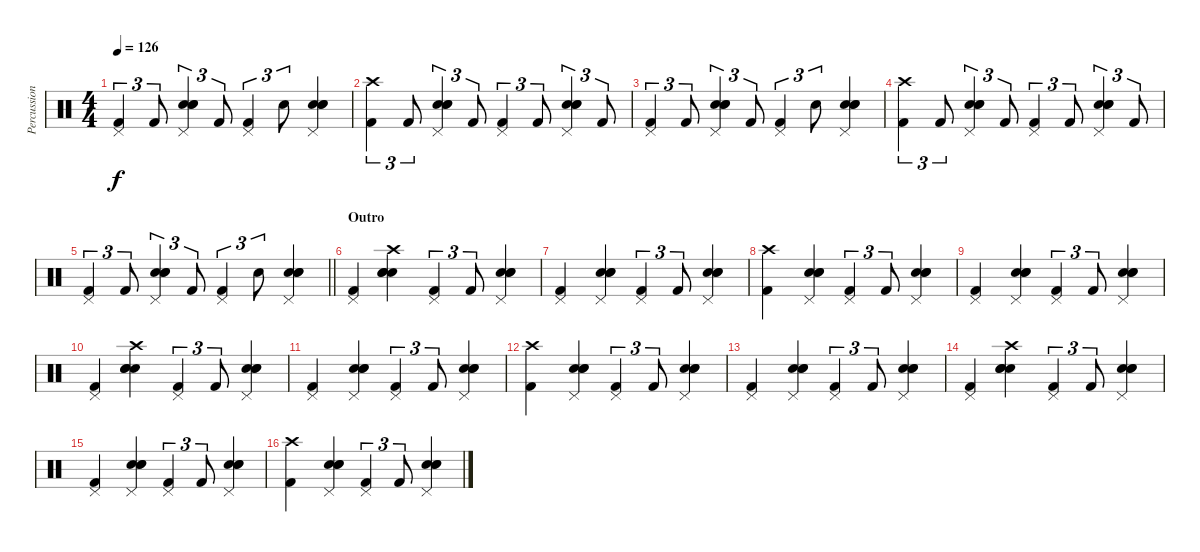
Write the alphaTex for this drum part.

\track ("Percussion" "Percussion") {instrument percussion}
\staff {score}
\articulation defaults
\ts (4 4)
\tempo 126
\clef neutral
\ks c
("Pedal Hi-Hat (hit)" "Kick (hit) 2").4{tu (3 2) dy f} "Kick (hit) 2".8{tu (3 2)} ("Pedal Hi-Hat (hit)" "Electric Snare (hit)" "Hand Clap (hit)" "Hand Clap (hit)").4{tu (3 2)} "Kick (hit) 2".8{tu (3 2)} ("Pedal Hi-Hat (hit)" "Kick (hit) 2").4{tu (3 2)} "Electric Snare (hit)".8{tu (3 2)} ("Pedal Hi-Hat (hit)" "Electric Snare (hit)" "Hand Clap (hit)" "Hand Clap (hit)").4 |
("Crash high (hit)" "Kick (hit) 2").4{tu (3 2)} "Kick (hit) 2".8{tu (3 2)} ("Pedal Hi-Hat (hit)" "Electric Snare (hit)" "Hand Clap (hit)" "Hand Clap (hit)").4{tu (3 2)} "Kick (hit) 2".8{tu (3 2)} ("Pedal Hi-Hat (hit)" "Kick (hit) 2").4{tu (3 2)} "Kick (hit) 2".8{tu (3 2)} ("Pedal Hi-Hat (hit)" "Electric Snare (hit)" "Hand Clap (hit)" "Hand Clap (hit)").4{tu (3 2)} "Kick (hit) 2".8{tu (3 2)} |
("Pedal Hi-Hat (hit)" "Kick (hit) 2").4{tu (3 2)} "Kick (hit) 2".8{tu (3 2)} ("Pedal Hi-Hat (hit)" "Electric Snare (hit)" "Hand Clap (hit)" "Hand Clap (hit)").4{tu (3 2)} "Kick (hit) 2".8{tu (3 2)} ("Pedal Hi-Hat (hit)" "Kick (hit) 2").4{tu (3 2)} "Electric Snare (hit)".8{tu (3 2)} ("Pedal Hi-Hat (hit)" "Electric Snare (hit)" "Hand Clap (hit)" "Hand Clap (hit)").4 |
("Crash high (hit)" "Kick (hit) 2").4{tu (3 2)} "Kick (hit) 2".8{tu (3 2)} ("Pedal Hi-Hat (hit)" "Electric Snare (hit)" "Hand Clap (hit)" "Hand Clap (hit)").4{tu (3 2)} "Kick (hit) 2".8{tu (3 2)} ("Pedal Hi-Hat (hit)" "Kick (hit) 2").4{tu (3 2)} "Kick (hit) 2".8{tu (3 2)} ("Pedal Hi-Hat (hit)" "Electric Snare (hit)" "Hand Clap (hit)" "Hand Clap (hit)").4{tu (3 2)} "Kick (hit) 2".8{tu (3 2)} |
\barLineRight lightlight
("Pedal Hi-Hat (hit)" "Kick (hit) 2").4{tu (3 2)} "Kick (hit) 2".8{tu (3 2)} ("Pedal Hi-Hat (hit)" "Electric Snare (hit)" "Hand Clap (hit)" "Hand Clap (hit)").4{tu (3 2)} "Kick (hit) 2".8{tu (3 2)} ("Pedal Hi-Hat (hit)" "Kick (hit) 2").4{tu (3 2)} "Electric Snare (hit)".8{tu (3 2)} ("Pedal Hi-Hat (hit)" "Electric Snare (hit)" "Hand Clap (hit)" "Hand Clap (hit)").4 |
\section ("" "Outro")
("Pedal Hi-Hat (hit)" "Kick (hit) 2").4 ("Crash high (hit)" "Electric Snare (hit)" "Hand Clap (hit)" "Hand Clap (hit)").4 ("Pedal Hi-Hat (hit)" "Kick (hit) 2").4{tu (3 2)} "Kick (hit) 2".8{tu (3 2)} ("Pedal Hi-Hat (hit)" "Electric Snare (hit)" "Hand Clap (hit)" "Hand Clap (hit)").4 |
("Pedal Hi-Hat (hit)" "Kick (hit) 2").4 ("Pedal Hi-Hat (hit)" "Electric Snare (hit)" "Hand Clap (hit)" "Hand Clap (hit)").4 ("Pedal Hi-Hat (hit)" "Kick (hit) 2").4{tu (3 2)} "Kick (hit) 2".8{tu (3 2)} ("Pedal Hi-Hat (hit)" "Electric Snare (hit)" "Hand Clap (hit)" "Hand Clap (hit)").4 |
("Crash high (hit)" "Kick (hit) 2").4 ("Pedal Hi-Hat (hit)" "Electric Snare (hit)" "Hand Clap (hit)" "Hand Clap (hit)").4 ("Pedal Hi-Hat (hit)" "Kick (hit) 2").4{tu (3 2)} "Kick (hit) 2".8{tu (3 2)} ("Pedal Hi-Hat (hit)" "Electric Snare (hit)" "Hand Clap (hit)" "Hand Clap (hit)").4 |
("Pedal Hi-Hat (hit)" "Kick (hit) 2").4 ("Pedal Hi-Hat (hit)" "Electric Snare (hit)" "Hand Clap (hit)" "Hand Clap (hit)").4 ("Pedal Hi-Hat (hit)" "Kick (hit) 2").4{tu (3 2)} "Kick (hit) 2".8{tu (3 2)} ("Pedal Hi-Hat (hit)" "Electric Snare (hit)" "Hand Clap (hit)" "Hand Clap (hit)").4 |
("Pedal Hi-Hat (hit)" "Kick (hit) 2").4 ("Crash high (hit)" "Electric Snare (hit)" "Hand Clap (hit)" "Hand Clap (hit)").4 ("Pedal Hi-Hat (hit)" "Kick (hit) 2").4{tu (3 2)} "Kick (hit) 2".8{tu (3 2)} ("Pedal Hi-Hat (hit)" "Electric Snare (hit)" "Hand Clap (hit)" "Hand Clap (hit)").4 |
("Pedal Hi-Hat (hit)" "Kick (hit) 2").4 ("Pedal Hi-Hat (hit)" "Electric Snare (hit)" "Hand Clap (hit)" "Hand Clap (hit)").4 ("Pedal Hi-Hat (hit)" "Kick (hit) 2").4{tu (3 2)} "Kick (hit) 2".8{tu (3 2)} ("Pedal Hi-Hat (hit)" "Electric Snare (hit)" "Hand Clap (hit)" "Hand Clap (hit)").4 |
("Crash high (hit)" "Kick (hit) 2").4 ("Pedal Hi-Hat (hit)" "Electric Snare (hit)" "Hand Clap (hit)" "Hand Clap (hit)").4 ("Pedal Hi-Hat (hit)" "Kick (hit) 2").4{tu (3 2)} "Kick (hit) 2".8{tu (3 2)} ("Pedal Hi-Hat (hit)" "Electric Snare (hit)" "Hand Clap (hit)" "Hand Clap (hit)").4 |
("Pedal Hi-Hat (hit)" "Kick (hit) 2").4 ("Pedal Hi-Hat (hit)" "Electric Snare (hit)" "Hand Clap (hit)" "Hand Clap (hit)").4 ("Pedal Hi-Hat (hit)" "Kick (hit) 2").4{tu (3 2)} "Kick (hit) 2".8{tu (3 2)} ("Pedal Hi-Hat (hit)" "Electric Snare (hit)" "Hand Clap (hit)" "Hand Clap (hit)").4 |
("Pedal Hi-Hat (hit)" "Kick (hit) 2").4 ("Crash high (hit)" "Electric Snare (hit)" "Hand Clap (hit)" "Hand Clap (hit)").4 ("Pedal Hi-Hat (hit)" "Kick (hit) 2").4{tu (3 2)} "Kick (hit) 2".8{tu (3 2)} ("Pedal Hi-Hat (hit)" "Electric Snare (hit)" "Hand Clap (hit)" "Hand Clap (hit)").4 |
("Pedal Hi-Hat (hit)" "Kick (hit) 2").4 ("Pedal Hi-Hat (hit)" "Electric Snare (hit)" "Hand Clap (hit)" "Hand Clap (hit)").4 ("Pedal Hi-Hat (hit)" "Kick (hit) 2").4{tu (3 2)} "Kick (hit) 2".8{tu (3 2)} ("Pedal Hi-Hat (hit)" "Electric Snare (hit)" "Hand Clap (hit)" "Hand Clap (hit)").4 |
("Crash high (hit)" "Kick (hit) 2").4 ("Pedal Hi-Hat (hit)" "Electric Snare (hit)" "Hand Clap (hit)" "Hand Clap (hit)").4 ("Pedal Hi-Hat (hit)" "Kick (hit) 2").4{tu (3 2)} "Kick (hit) 2".8{tu (3 2)} ("Pedal Hi-Hat (hit)" "Electric Snare (hit)" "Hand Clap (hit)" "Hand Clap (hit)").4
